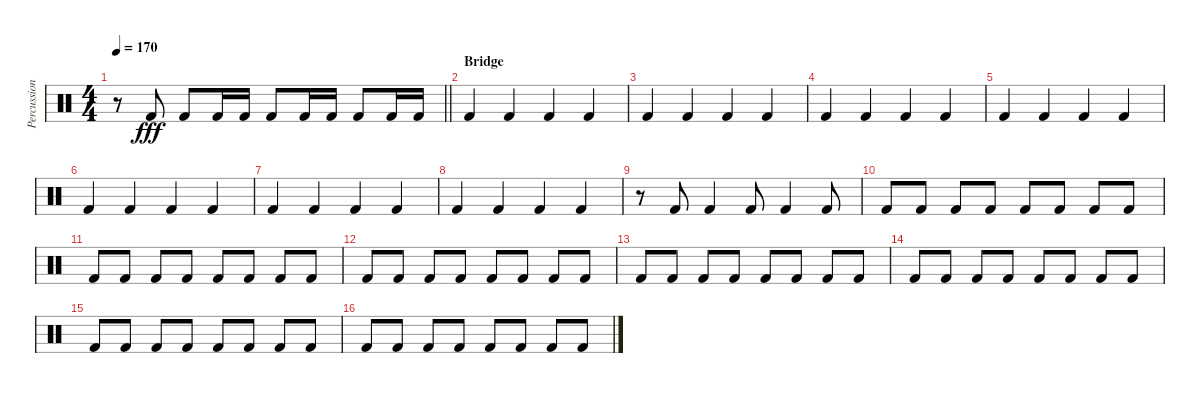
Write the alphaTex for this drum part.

\track ("Percussioni" "Percussion") {instrument percussion}
\staff
\articulation defaults
\ts (4 4)
\tempo 170
\clef neutral
\barLineRight lightlight
\ks c
r.8{dy fff} "Kick (hit) 2".8 "Kick (hit) 2".8 "Kick (hit) 2".16 "Kick (hit) 2".16 "Kick (hit) 2".8 "Kick (hit) 2".16 "Kick (hit) 2".16 "Kick (hit) 2".8 "Kick (hit) 2".16 "Kick (hit) 2".16 |
\section ("" "Bridge")
"Kick (hit) 2".4 "Kick (hit) 2".4 "Kick (hit) 2".4 "Kick (hit) 2".4 |
"Kick (hit) 2".4 "Kick (hit) 2".4 "Kick (hit) 2".4 "Kick (hit) 2".4 |
"Kick (hit) 2".4 "Kick (hit) 2".4 "Kick (hit) 2".4 "Kick (hit) 2".4 |
"Kick (hit) 2".4 "Kick (hit) 2".4 "Kick (hit) 2".4 "Kick (hit) 2".4 |
"Kick (hit) 2".4 "Kick (hit) 2".4 "Kick (hit) 2".4 "Kick (hit) 2".4 |
"Kick (hit) 2".4 "Kick (hit) 2".4 "Kick (hit) 2".4 "Kick (hit) 2".4 |
"Kick (hit) 2".4 "Kick (hit) 2".4 "Kick (hit) 2".4 "Kick (hit) 2".4 |
r.8 "Kick (hit) 2".8 "Kick (hit) 2".4 "Kick (hit) 2".8 "Kick (hit) 2".4 "Kick (hit) 2".8 |
"Kick (hit) 2".8 "Kick (hit) 2".8 "Kick (hit) 2".8 "Kick (hit) 2".8 "Kick (hit) 2".8 "Kick (hit) 2".8 "Kick (hit) 2".8 "Kick (hit) 2".8 |
"Kick (hit) 2".8 "Kick (hit) 2".8 "Kick (hit) 2".8 "Kick (hit) 2".8 "Kick (hit) 2".8 "Kick (hit) 2".8 "Kick (hit) 2".8 "Kick (hit) 2".8 |
"Kick (hit) 2".8 "Kick (hit) 2".8 "Kick (hit) 2".8 "Kick (hit) 2".8 "Kick (hit) 2".8 "Kick (hit) 2".8 "Kick (hit) 2".8 "Kick (hit) 2".8 |
"Kick (hit) 2".8 "Kick (hit) 2".8 "Kick (hit) 2".8 "Kick (hit) 2".8 "Kick (hit) 2".8 "Kick (hit) 2".8 "Kick (hit) 2".8 "Kick (hit) 2".8 |
"Kick (hit) 2".8 "Kick (hit) 2".8 "Kick (hit) 2".8 "Kick (hit) 2".8 "Kick (hit) 2".8 "Kick (hit) 2".8 "Kick (hit) 2".8 "Kick (hit) 2".8 |
"Kick (hit) 2".8 "Kick (hit) 2".8 "Kick (hit) 2".8 "Kick (hit) 2".8 "Kick (hit) 2".8 "Kick (hit) 2".8 "Kick (hit) 2".8 "Kick (hit) 2".8 |
"Kick (hit) 2".8 "Kick (hit) 2".8 "Kick (hit) 2".8 "Kick (hit) 2".8 "Kick (hit) 2".8 "Kick (hit) 2".8 "Kick (hit) 2".8 "Kick (hit) 2".8
